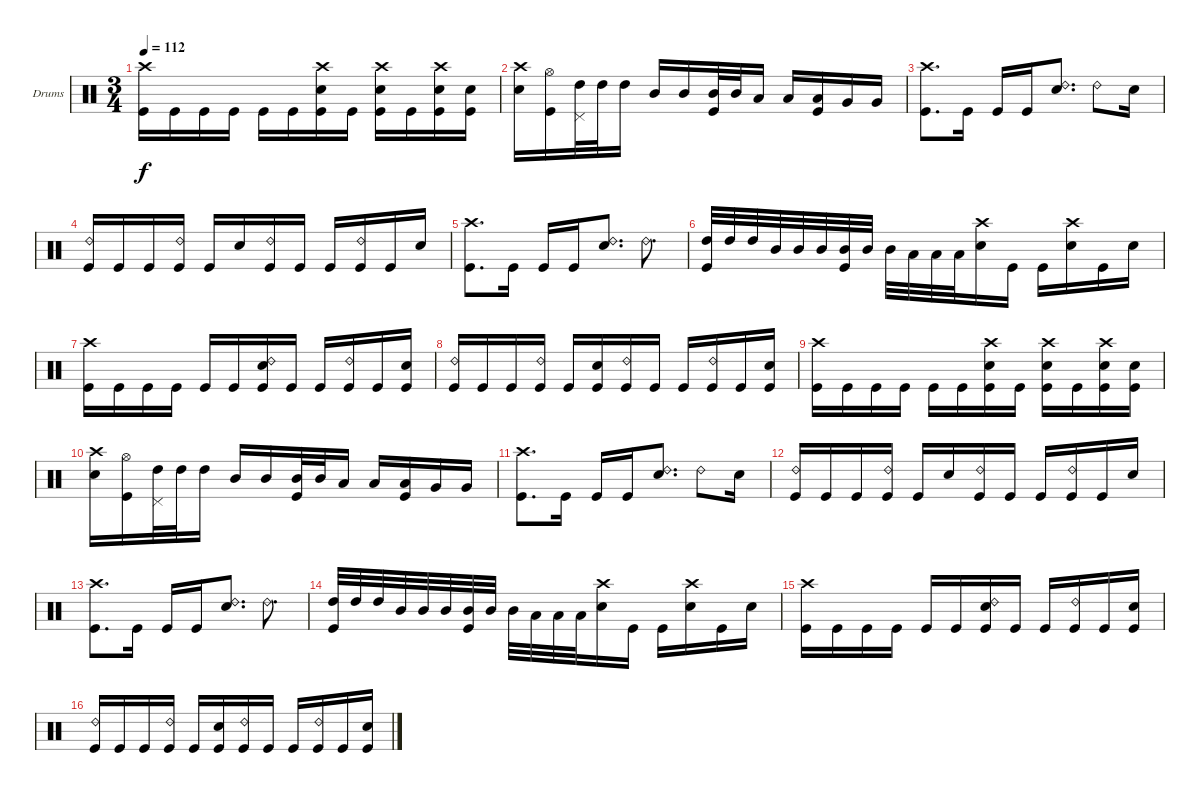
\bracketExtendMode groupsimilarinstruments
\firstSystemTrackNameOrientation horizontal
\otherSystemsTrackNameOrientation horizontal
\track ("Drumkit" "Drums") {instrument percussion}
\staff {score}
\articulation defaults
\ts (3 4)
\tempo 112
\clef neutral
\ks c
("Crash high (hit)" "Kick (hit)").16{dy f} "Kick (hit)".16 "Kick (hit)".16 "Kick (hit)".16 "Kick (hit)".16 "Kick (hit)".16 ("Crash high (hit)" "Snare (hit) 2" "Kick (hit)").16 "Kick (hit)".16 ("Crash high (hit)" "Snare (hit) 2" "Kick (hit)").16 "Kick (hit)".16 ("Crash high (hit)" "Snare (hit) 2" "Kick (hit)").16 ("Snare (hit) 2" "Kick (hit)").16 |
("Crash high (hit)" "Snare (hit) 2").16 ("Hi-Hat (open)" "Kick (hit)").16 ("Pedal Hi-Hat (hit)" "High Tom (hit)").32 "High Tom (hit)".32 "High Tom (hit)".16 "Mid Tom (hit)".16 "Mid Tom (hit)".16 ("Mid Tom (hit)" "Kick (hit)").32 "Mid Tom (hit)".32 "Low Tom (hit)".16 "Low Tom (hit)".16 ("Low Tom (hit)" "Kick (hit)").16 "Very Low Tom (hit)".16 "Very Low Tom (hit)".16 |
("Crash high (hit)" "Kick (hit)").8{d} "Kick (hit)".16 "Kick (hit)".16 "Kick (hit)".16 ("Ride (bell) 2" "Snare (hit) 2").8{d} "Ride (bell) 2".8 "Snare (hit) 2".16 |
("Ride (bell) 2" "Kick (hit)").16 "Kick (hit)".16 "Kick (hit)".16 ("Ride (bell) 2" "Kick (hit)").16 "Kick (hit)".16 "Snare (hit) 2".16 ("Ride (bell) 2" "Kick (hit)").16 "Kick (hit)".16 "Kick (hit)".16 ("Ride (bell) 2" "Kick (hit)").16 "Kick (hit)".16 "Snare (hit) 2".16 |
("Crash high (hit)" "Kick (hit)").8{d} "Kick (hit)".16 "Kick (hit)".16 "Kick (hit)".16 ("Ride (bell) 2" "Snare (hit) 2").8{d} "Ride (bell) 2".8{d} |
("High Tom (hit)" "Kick (hit)").32 "High Tom (hit)".32 "High Tom (hit)".32 "Mid Tom (hit)".32 "Mid Tom (hit)".32 "Mid Tom (hit)".32 ("Mid Tom (hit)" "Kick (hit)").32 "Mid Tom (hit)".32 "Mid Tom (hit)".32 "Low Tom (hit)".32 "Low Tom (hit)".32 "Low Tom (hit)".32 ("Crash high (hit)" "Snare (hit) 2").16 "Kick (hit)".16 "Kick (hit)".16 ("Crash high (hit)" "Snare (hit) 2").16 "Kick (hit)".16 "Snare (hit) 2".16 |
("Crash high (hit)" "Kick (hit)").16 "Kick (hit)".16 "Kick (hit)".16 "Kick (hit)".16 "Kick (hit)".16 "Kick (hit)".16 ("Ride (bell) 2" "Snare (hit) 2" "Kick (hit)").16 "Kick (hit)".16 "Kick (hit)".16 ("Ride (bell) 2" "Kick (hit)").16 "Kick (hit)".16 ("Snare (hit) 2" "Kick (hit)").16 |
("Ride (bell) 2" "Kick (hit)").16 "Kick (hit)".16 "Kick (hit)".16 ("Ride (bell) 2" "Kick (hit)").16 "Kick (hit)".16 ("Snare (hit) 2" "Kick (hit)").16 ("Ride (bell) 2" "Kick (hit)").16 "Kick (hit)".16 "Kick (hit)".16 ("Ride (bell) 2" "Kick (hit)").16 "Kick (hit)".16 ("Snare (hit) 2" "Kick (hit)").16 |
("Crash high (hit)" "Kick (hit)").16 "Kick (hit)".16 "Kick (hit)".16 "Kick (hit)".16 "Kick (hit)".16 "Kick (hit)".16 ("Crash high (hit)" "Snare (hit) 2" "Kick (hit)").16 "Kick (hit)".16 ("Crash high (hit)" "Snare (hit) 2" "Kick (hit)").16 "Kick (hit)".16 ("Crash high (hit)" "Snare (hit) 2" "Kick (hit)").16 ("Snare (hit) 2" "Kick (hit)").16 |
("Crash high (hit)" "Snare (hit) 2").16 ("Hi-Hat (open)" "Kick (hit)").16 ("Pedal Hi-Hat (hit)" "High Tom (hit)").32 "High Tom (hit)".32 "High Tom (hit)".16 "Mid Tom (hit)".16 "Mid Tom (hit)".16 ("Mid Tom (hit)" "Kick (hit)").32 "Mid Tom (hit)".32 "Low Tom (hit)".16 "Low Tom (hit)".16 ("Low Tom (hit)" "Kick (hit)").16 "Very Low Tom (hit)".16 "Very Low Tom (hit)".16 |
("Crash high (hit)" "Kick (hit)").8{d} "Kick (hit)".16 "Kick (hit)".16 "Kick (hit)".16 ("Ride (bell) 2" "Snare (hit) 2").8{d} "Ride (bell) 2".8 "Snare (hit) 2".16 |
("Ride (bell) 2" "Kick (hit)").16 "Kick (hit)".16 "Kick (hit)".16 ("Ride (bell) 2" "Kick (hit)").16 "Kick (hit)".16 "Snare (hit) 2".16 ("Ride (bell) 2" "Kick (hit)").16 "Kick (hit)".16 "Kick (hit)".16 ("Ride (bell) 2" "Kick (hit)").16 "Kick (hit)".16 "Snare (hit) 2".16 |
("Crash high (hit)" "Kick (hit)").8{d} "Kick (hit)".16 "Kick (hit)".16 "Kick (hit)".16 ("Ride (bell) 2" "Snare (hit) 2").8{d} "Ride (bell) 2".8{d} |
("High Tom (hit)" "Kick (hit)").32 "High Tom (hit)".32 "High Tom (hit)".32 "Mid Tom (hit)".32 "Mid Tom (hit)".32 "Mid Tom (hit)".32 ("Mid Tom (hit)" "Kick (hit)").32 "Mid Tom (hit)".32 "Mid Tom (hit)".32 "Low Tom (hit)".32 "Low Tom (hit)".32 "Low Tom (hit)".32 ("Crash high (hit)" "Snare (hit) 2").16 "Kick (hit)".16 "Kick (hit)".16 ("Crash high (hit)" "Snare (hit) 2").16 "Kick (hit)".16 "Snare (hit) 2".16 |
("Crash high (hit)" "Kick (hit)").16 "Kick (hit)".16 "Kick (hit)".16 "Kick (hit)".16 "Kick (hit)".16 "Kick (hit)".16 ("Ride (bell) 2" "Snare (hit) 2" "Kick (hit)").16 "Kick (hit)".16 "Kick (hit)".16 ("Ride (bell) 2" "Kick (hit)").16 "Kick (hit)".16 ("Snare (hit) 2" "Kick (hit)").16 |
("Ride (bell) 2" "Kick (hit)").16 "Kick (hit)".16 "Kick (hit)".16 ("Ride (bell) 2" "Kick (hit)").16 "Kick (hit)".16 ("Snare (hit) 2" "Kick (hit)").16 ("Ride (bell) 2" "Kick (hit)").16 "Kick (hit)".16 "Kick (hit)".16 ("Ride (bell) 2" "Kick (hit)").16 "Kick (hit)".16 ("Snare (hit) 2" "Kick (hit)").16
